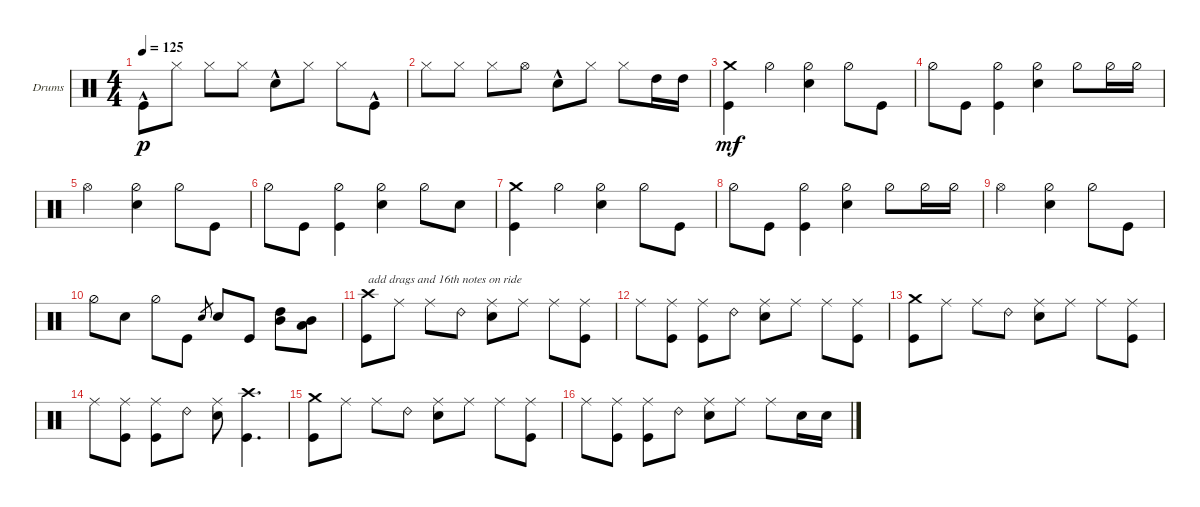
\bracketExtendMode groupsimilarinstruments
\firstSystemTrackNameOrientation horizontal
\otherSystemsTrackNameOrientation horizontal
\track ("Drums (chad ...)" "Drums") {instrument percussion}
\staff {score}
\articulation defaults
\ts (4 4)
\tempo 125
\clef neutral
\ks c "Kick (hit)"{hac}.8{dy p} "Hi-Hat (closed)".8 "Hi-Hat (closed)".8 "Hi-Hat (closed)".8 "Snare (hit) 2"{hac}.8 "Hi-Hat (closed)".8 "Hi-Hat (closed)".8 "Kick (hit)"{hac}.8
|
"Hi-Hat (closed)".8 "Hi-Hat (closed)".8 "Hi-Hat (closed)".8 "Hi-Hat (open)".8 "Snare (hit) 2"{hac}.8 "Hi-Hat (closed)".8 "Hi-Hat (closed)".8 "High Tom (hit)".16 "High Tom (hit)".16 |
("Crash medium (hit)" "Kick (hit)").4{dy mf} "Hi-Hat (half)".4 ("Hi-Hat (half)" "Snare (hit) 2").4 "Hi-Hat (half)".8 "Kick (hit)".8 |
"Hi-Hat (half)".8 "Kick (hit)".8 ("Kick (hit)" "Hi-Hat (half)").4 ("Hi-Hat (half)" "Snare (hit) 2").4 "Hi-Hat (half)".8 "Hi-Hat (half)".16 "Hi-Hat (half)".16 |
"Hi-Hat (open)".2 ("Hi-Hat (half)" "Snare (hit) 2").4 "Hi-Hat (half)".8 "Kick (hit)".8 |
"Hi-Hat (half)".8 "Kick (hit)".8 ("Kick (hit)" "Hi-Hat (half)").4 ("Hi-Hat (half)" "Snare (hit) 2").4 "Hi-Hat (half)".8 "Snare (hit) 2".8 |
("Crash medium (hit)" "Kick (hit)").4 "Hi-Hat (half)".4 ("Hi-Hat (half)" "Snare (hit) 2").4 "Hi-Hat (half)".8 "Kick (hit)".8 |
"Hi-Hat (half)".8 "Kick (hit)".8 ("Kick (hit)" "Hi-Hat (half)").4 ("Hi-Hat (half)" "Snare (hit) 2").4 "Hi-Hat (half)".8 "Hi-Hat (half)".16 "Hi-Hat (half)".16 |
"Hi-Hat (open)".2 ("Hi-Hat (half)" "Snare (hit) 2").4 "Hi-Hat (half)".8 "Kick (hit)".8 |
"Hi-Hat (half)".8 "Snare (hit) 2".8 "Hi-Hat (half)".8 "Kick (hit)".8 "Snare (hit) 2".8{gr} "Snare (hit) 2".8 "Kick (hit)".8 ("High Tom (hit)" "Mid Tom (hit)").8 ("Mid Tom (hit)" "Low Tom (hit)").8 |
("Crash high (hit)" "Kick (hit)").8{txt "add drags and 16th notes on ride"} "Ride (middle)".8 "Ride (middle)".8 "Ride (bell) 2".8 ("Ride (middle)" "Snare (hit) 2").8 "Ride (middle)".8 "Ride (middle)".8 ("Ride (middle)" "Kick (hit)").8 |
"Ride (middle)".8 ("Kick (hit)" "Ride (middle)").8 ("Kick (hit)" "Ride (middle)").8 "Ride (bell) 2".8 ("Ride (middle)" "Snare (hit) 2").8 "Ride (middle)".8 "Ride (middle)".8 ("Ride (middle)" "Kick (hit)").8 |
("Kick (hit)" "Crash medium (hit)").8 "Ride (middle)".8 "Ride (middle)".8 "Ride (bell) 2".8 ("Ride (middle)" "Snare (hit) 2").8 "Ride (middle)".8 "Ride (middle)".8 ("Ride (middle)" "Kick (hit)").8 |
"Ride (middle)".8 ("Kick (hit)" "Ride (middle)").8 ("Kick (hit)" "Ride (middle)").8 "Ride (bell) 2".8 ("Ride (middle)" "Snare (hit) 2").8 ("Crash high (hit)" "Kick (hit)").4{d} |
("Kick (hit)" "Crash medium (hit)").8 "Ride (middle)".8 "Ride (middle)".8 "Ride (bell) 2".8 ("Ride (middle)" "Snare (hit) 2").8 "Ride (middle)".8 "Ride (middle)".8 ("Ride (middle)" "Kick (hit)").8 |
"Ride (middle)".8 ("Kick (hit)" "Ride (middle)").8 ("Kick (hit)" "Ride (middle)").8 "Ride (bell) 2".8 ("Ride (middle)" "Snare (hit) 2").8 "Ride (middle)".8 "Ride (middle)".8 "Snare (hit) 2".16 "Snare (hit) 2".16
